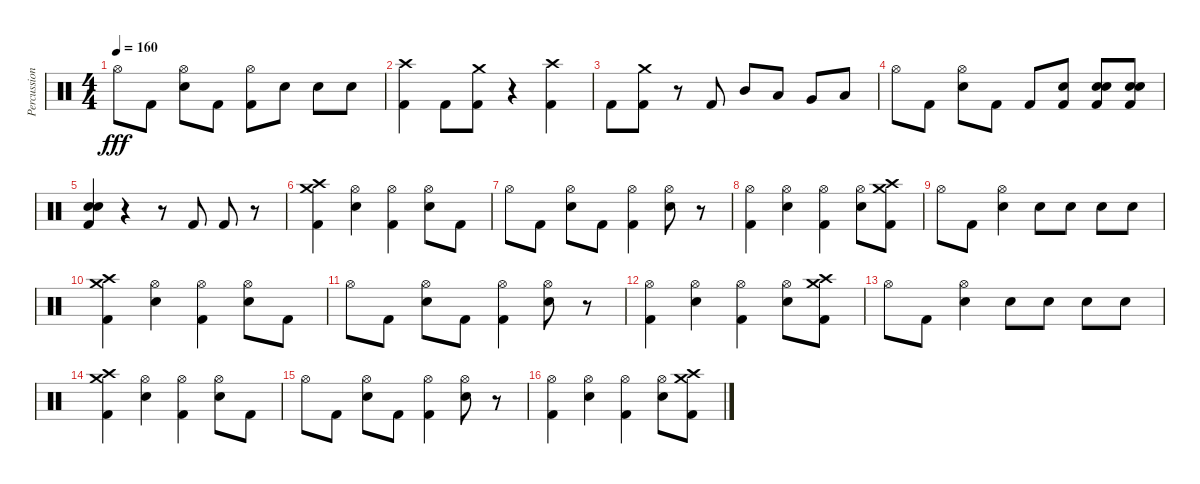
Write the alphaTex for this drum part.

\track ("Percussion" "Percussion") {instrument percussion}
\staff {score}
\articulation defaults
\ts (4 4)
\tempo 160
\clef neutral
\ks c "Hi-Hat (open)".8{dy fff} "Kick (hit) 2".8
("Hi-Hat (open)" "Snare (hit) 2").8 "Kick (hit) 2".8 ("Hi-Hat (open)" "Kick (hit) 2").8 "Snare (hit) 2".8 "Snare (hit) 2".8 "Snare (hit) 2".8 |
("Crash high (hit)" "Kick (hit) 2").4 "Kick (hit) 2".8 ("Crash medium (hit)" "Kick (hit) 2").8 r.4 ("Crash high (hit)" "Kick (hit) 2").4 |
"Kick (hit) 2".8 ("Crash medium (hit)" "Kick (hit) 2").8 r.8 "Kick (hit) 2".8 "Mid Tom (hit)".8 "Low Tom (hit)".8 "Very Low Tom (hit)".8 "Low Floor Tom (hit)".8 |
"Hi-Hat (open)".8 "Kick (hit) 2".8 ("Hi-Hat (open)" "Snare (hit) 2").8 "Kick (hit) 2".8 "Kick (hit) 2".8 ("Snare (hit) 2" "Kick (hit) 2").8 ("Electric Snare (hit)" "Snare (hit) 2" "Kick (hit) 2").8 ("Electric Snare (hit)" "Snare (hit) 2" "Kick (hit) 2").8 |
("Electric Snare (hit)" "Snare (hit) 2" "Kick (hit) 2").4 r.4 r.8 "Kick (hit) 2".8 "Kick (hit) 2".8 r.8 |
("Crash medium (hit)" "Crash high (hit)" "Kick (hit) 2").4 ("Hi-Hat (open)" "Snare (hit) 2").4 ("Hi-Hat (open)" "Kick (hit) 2").4 ("Hi-Hat (open)" "Snare (hit) 2").8 "Kick (hit) 2".8 |
"Hi-Hat (open)".8 "Kick (hit) 2".8 ("Hi-Hat (open)" "Snare (hit) 2").8 "Kick (hit) 2".8 ("Hi-Hat (open)" "Kick (hit) 2").4 ("Hi-Hat (open)" "Snare (hit) 2").8 r.8 |
("Hi-Hat (open)" "Kick (hit) 2").4 ("Hi-Hat (open)" "Snare (hit) 2").4 ("Hi-Hat (open)" "Kick (hit) 2").4 ("Hi-Hat (open)" "Snare (hit) 2").8 ("Crash medium (hit)" "Crash high (hit)" "Kick (hit) 2").8 |
"Hi-Hat (open)".8 "Kick (hit) 2".8 ("Hi-Hat (open)" "Snare (hit) 2").4 "Snare (hit) 2".8 "Snare (hit) 2".8 "Snare (hit) 2".8 "Snare (hit) 2".8 |
("Crash medium (hit)" "Crash high (hit)" "Kick (hit) 2").4 ("Hi-Hat (open)" "Snare (hit) 2").4 ("Hi-Hat (open)" "Kick (hit) 2").4 ("Hi-Hat (open)" "Snare (hit) 2").8 "Kick (hit) 2".8 |
"Hi-Hat (open)".8 "Kick (hit) 2".8 ("Hi-Hat (open)" "Snare (hit) 2").8 "Kick (hit) 2".8 ("Hi-Hat (open)" "Kick (hit) 2").4 ("Hi-Hat (open)" "Snare (hit) 2").8 r.8 |
("Hi-Hat (open)" "Kick (hit) 2").4 ("Hi-Hat (open)" "Snare (hit) 2").4 ("Hi-Hat (open)" "Kick (hit) 2").4 ("Hi-Hat (open)" "Snare (hit) 2").8 ("Crash medium (hit)" "Crash high (hit)" "Kick (hit) 2").8 |
"Hi-Hat (open)".8 "Kick (hit) 2".8 ("Hi-Hat (open)" "Snare (hit) 2").4 "Snare (hit) 2".8 "Snare (hit) 2".8 "Snare (hit) 2".8 "Snare (hit) 2".8 |
("Crash medium (hit)" "Crash high (hit)" "Kick (hit) 2").4 ("Hi-Hat (open)" "Snare (hit) 2").4 ("Hi-Hat (open)" "Kick (hit) 2").4 ("Hi-Hat (open)" "Snare (hit) 2").8 "Kick (hit) 2".8 |
"Hi-Hat (open)".8 "Kick (hit) 2".8 ("Hi-Hat (open)" "Snare (hit) 2").8 "Kick (hit) 2".8 ("Hi-Hat (open)" "Kick (hit) 2").4 ("Hi-Hat (open)" "Snare (hit) 2").8 r.8 |
("Hi-Hat (open)" "Kick (hit) 2").4 ("Hi-Hat (open)" "Snare (hit) 2").4 ("Hi-Hat (open)" "Kick (hit) 2").4 ("Hi-Hat (open)" "Snare (hit) 2").8 ("Crash medium (hit)" "Crash high (hit)" "Kick (hit) 2").8
